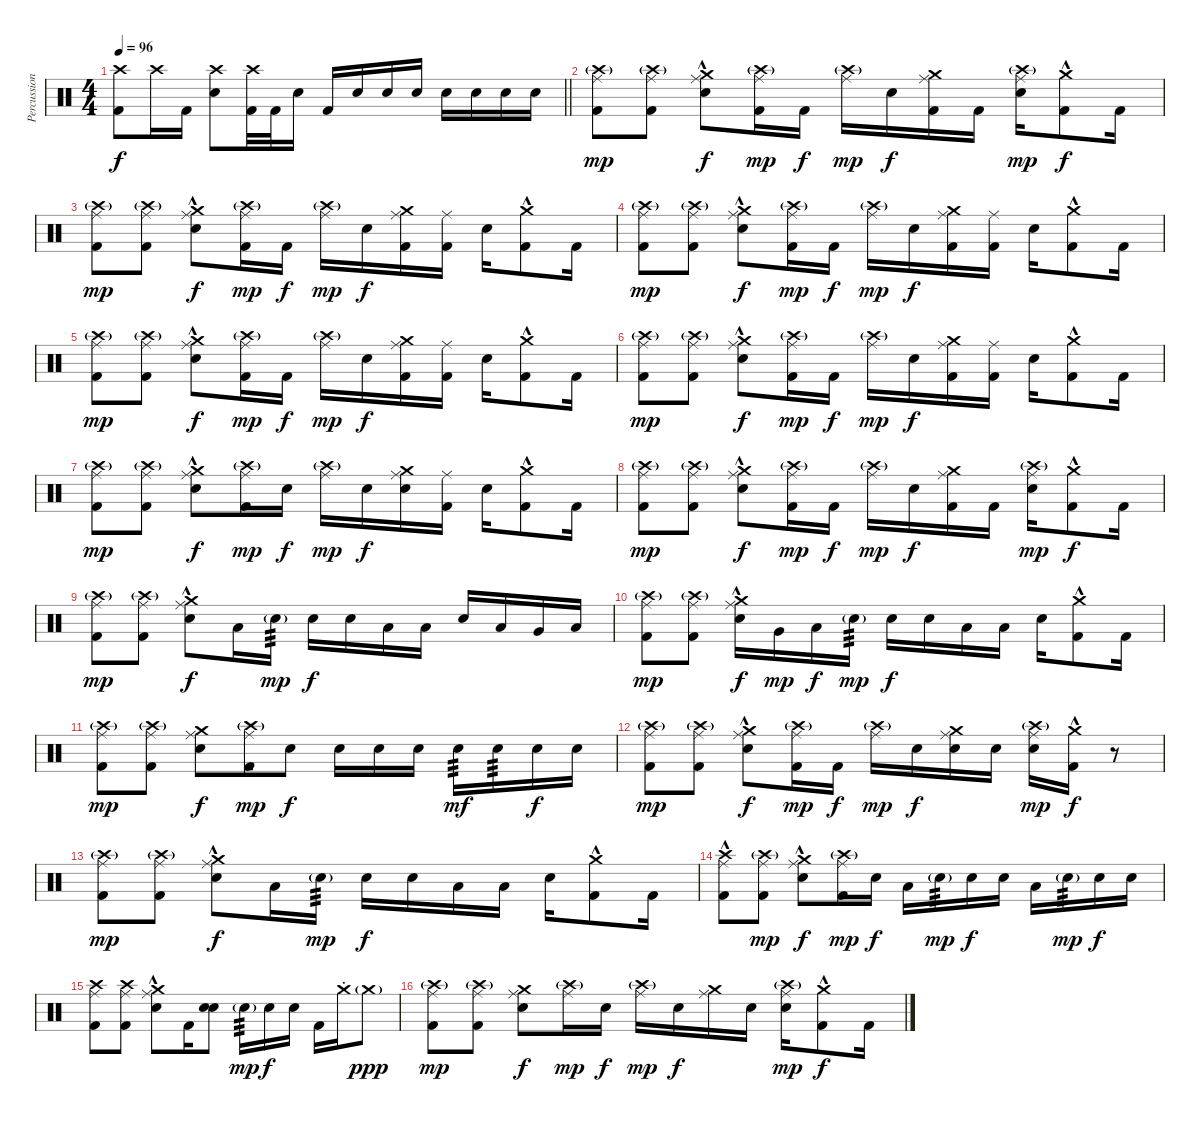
\track ("Percussion" "Percussion") {instrument percussion}
\staff {score}
\articulation defaults
\ts (4 4)
\tempo 96
\clef neutral
\barLineRight lightlight
\ks c
("Crash high (hit)" "Kick (hit) 2").8{dy f} "Crash high (hit)".16 "Kick (hit) 2".16 ("Crash high (hit)" "Snare (hit) 2").8 ("Crash high (hit)" "Kick (hit) 2").32 "Kick (hit) 2".32 "Snare (hit) 2".16 "Kick (hit) 2".16 "Snare (hit) 2".16 "Snare (hit) 2".16 "Snare (hit) 2".16 "Snare (hit) 2".16 "Snare (hit) 2".16 "Snare (hit) 2".16 "Snare (hit) 2".16 |
("Ride (middle)" "Crash high (hit)"{g} "Kick (hit) 2").8{dy mp} ("Ride (middle)" "Crash high (hit)"{g} "Kick (hit) 2").8 ("Ride (middle)" "Crash medium (hit)"{hac} "Snare (hit) 2").8{dy f} ("Ride (middle)" "Crash high (hit)"{g} "Kick (hit) 2").16{dy mp} "Kick (hit) 2".16{dy f} ("Ride (middle)" "Crash high (hit)"{g}).16{dy mp} "Snare (hit) 2".16{dy f} ("Ride (middle)" "Crash medium (hit)" "Kick (hit) 2").16 "Kick (hit) 2".16 ("Ride (middle)" "Crash high (hit)"{g} "Snare (hit) 2").16{dy mp} ("Crash medium (hit)"{hac} "Kick (hit) 2").8{dy f} "Kick (hit) 2".16 |
("Ride (middle)" "Crash high (hit)"{g} "Kick (hit) 2").8{dy mp} ("Ride (middle)" "Crash high (hit)"{g} "Kick (hit) 2").8 ("Ride (middle)" "Crash medium (hit)"{hac} "Snare (hit) 2").8{dy f} ("Ride (middle)" "Crash high (hit)"{g} "Kick (hit) 2").16{dy mp} "Kick (hit) 2".16{dy f} ("Ride (middle)" "Crash high (hit)"{g}).16{dy mp} "Snare (hit) 2".16{dy f} ("Ride (middle)" "Crash medium (hit)" "Kick (hit) 2").16 ("Ride (middle)" "Kick (hit) 2").16 "Snare (hit) 2".16 ("Crash medium (hit)"{hac} "Kick (hit) 2").8 "Kick (hit) 2".16 |
("Ride (middle)" "Crash high (hit)"{g} "Kick (hit) 2").8{dy mp} ("Ride (middle)" "Crash high (hit)"{g} "Kick (hit) 2").8 ("Ride (middle)" "Crash medium (hit)"{hac} "Snare (hit) 2").8{dy f} ("Ride (middle)" "Crash high (hit)"{g} "Kick (hit) 2").16{dy mp} "Kick (hit) 2".16{dy f} ("Ride (middle)" "Crash high (hit)"{g}).16{dy mp} "Snare (hit) 2".16{dy f} ("Ride (middle)" "Crash medium (hit)" "Kick (hit) 2").16 ("Ride (middle)" "Kick (hit) 2").16 "Snare (hit) 2".16 ("Crash medium (hit)"{hac} "Kick (hit) 2").8 "Kick (hit) 2".16 |
("Ride (middle)" "Crash high (hit)"{g} "Kick (hit) 2").8{dy mp} ("Ride (middle)" "Crash high (hit)"{g} "Kick (hit) 2").8 ("Ride (middle)" "Crash medium (hit)"{hac} "Snare (hit) 2").8{dy f} ("Ride (middle)" "Crash high (hit)"{g} "Kick (hit) 2").16{dy mp} "Kick (hit) 2".16{dy f} ("Ride (middle)" "Crash high (hit)"{g}).16{dy mp} "Snare (hit) 2".16{dy f} ("Ride (middle)" "Crash medium (hit)" "Kick (hit) 2").16 ("Ride (middle)" "Kick (hit) 2").16 "Snare (hit) 2".16 ("Crash medium (hit)"{hac} "Kick (hit) 2").8 "Kick (hit) 2".16 |
("Ride (middle)" "Crash high (hit)"{g} "Kick (hit) 2").8{dy mp} ("Ride (middle)" "Crash high (hit)"{g} "Kick (hit) 2").8 ("Ride (middle)" "Crash medium (hit)"{hac} "Snare (hit) 2").8{dy f} ("Ride (middle)" "Crash high (hit)"{g} "Kick (hit) 2").16{dy mp} "Kick (hit) 2".16{dy f} ("Ride (middle)" "Crash high (hit)"{g}).16{dy mp} "Snare (hit) 2".16{dy f} ("Ride (middle)" "Crash medium (hit)" "Kick (hit) 2").16 ("Ride (middle)" "Kick (hit) 2").16 "Snare (hit) 2".16 ("Crash medium (hit)"{hac} "Kick (hit) 2").8 "Kick (hit) 2".16 |
("Ride (middle)" "Crash high (hit)"{g} "Kick (hit) 2").8{dy mp} ("Ride (middle)" "Crash high (hit)"{g} "Kick (hit) 2").8 ("Ride (middle)" "Crash medium (hit)"{hac} "Snare (hit) 2").8{dy f} ("Ride (middle)" "Crash high (hit)"{g} "Kick (hit) 2").16{dy mp} "Snare (hit) 2".16{dy f} ("Ride (middle)" "Crash high (hit)"{g}).16{dy mp} "Snare (hit) 2".16{dy f} ("Ride (middle)" "Crash medium (hit)" "Snare (hit) 2").16 ("Ride (middle)" "Kick (hit) 2").16 "Snare (hit) 2".16 ("Crash medium (hit)"{hac} "Kick (hit) 2").8 "Kick (hit) 2".16 |
("Ride (middle)" "Crash high (hit)"{g} "Kick (hit) 2").8{dy mp} ("Ride (middle)" "Crash high (hit)"{g} "Kick (hit) 2").8 ("Ride (middle)" "Crash medium (hit)"{hac} "Snare (hit) 2").8{dy f} ("Ride (middle)" "Crash high (hit)"{g} "Kick (hit) 2").16{dy mp} "Kick (hit) 2".16{dy f} ("Ride (middle)" "Crash high (hit)"{g}).16{dy mp} "Snare (hit) 2".16{dy f} ("Ride (middle)" "Crash medium (hit)" "Kick (hit) 2").16 "Kick (hit) 2".16 ("Ride (middle)" "Crash high (hit)"{g} "Snare (hit) 2").16{dy mp} ("Crash medium (hit)"{hac} "Kick (hit) 2").8{dy f} "Kick (hit) 2".16 |
("Ride (middle)" "Crash high (hit)"{g} "Kick (hit) 2").8{dy mp} ("Ride (middle)" "Crash high (hit)"{g} "Kick (hit) 2").8 ("Ride (middle)" "Crash medium (hit)"{hac} "Snare (hit) 2").8{dy f} "Low Floor Tom (hit)".16 "Snare (hit) 2"{g}.16{tp 3 dy mp} "Snare (hit) 2".16{dy f} "Snare (hit) 2".16 "Low Floor Tom (hit)".16 "Low Floor Tom (hit)".16 "Snare (hit) 2".16 "Low Tom (hit)".16 "Very Low Tom (hit)".16 "Low Floor Tom (hit)".16 |
("Ride (middle)" "Crash high (hit)"{g} "Kick (hit) 2").8{dy mp} ("Ride (middle)" "Crash high (hit)"{g} "Kick (hit) 2").8 ("Ride (middle)" "Crash medium (hit)"{hac} "Snare (hit) 2").16{dy f} "Very Low Tom (hit)".16{dy mp} "Low Floor Tom (hit)".16{dy f} "Snare (hit) 2"{g}.16{tp 3 dy mp} "Snare (hit) 2".16{dy f} "Snare (hit) 2".16 "Low Floor Tom (hit)".16 "Low Floor Tom (hit)".16 "Snare (hit) 2".16 ("Crash medium (hit)"{hac} "Kick (hit) 2").8 "Kick (hit) 2".16 |
("Ride (middle)" "Crash high (hit)"{g} "Kick (hit) 2").8{dy mp} ("Ride (middle)" "Crash high (hit)"{g} "Kick (hit) 2").8 ("Ride (middle)" "Crash medium (hit)" "Snare (hit) 2").8{dy f} ("Ride (middle)" "Crash high (hit)"{g} "Kick (hit) 2").16{dy mp} "Snare (hit) 2".8{dy f} "Snare (hit) 2".16 "Snare (hit) 2".16 "Snare (hit) 2".16 "Snare (hit) 2".16{tp 3 dy mf} "Snare (hit) 2".16{tp 3} "Snare (hit) 2".16{dy f} "Snare (hit) 2".16 |
("Ride (middle)" "Crash high (hit)"{g} "Kick (hit) 2").8{dy mp} ("Ride (middle)" "Crash high (hit)"{g} "Kick (hit) 2").8 ("Ride (middle)" "Crash medium (hit)"{hac} "Snare (hit) 2").8{dy f} ("Ride (middle)" "Crash high (hit)"{g} "Kick (hit) 2").16{dy mp} "Kick (hit) 2".16{dy f} ("Ride (middle)" "Crash high (hit)"{g}).16{dy mp} "Snare (hit) 2".16{dy f} ("Ride (middle)" "Crash medium (hit)" "Snare (hit) 2").16 "Snare (hit) 2".16 ("Ride (middle)" "Crash high (hit)"{g} "Snare (hit) 2").16{dy mp} ("Crash medium (hit)"{hac} "Kick (hit) 2").16{dy f} r.8 |
("Ride (middle)" "Crash high (hit)"{g} "Kick (hit) 2").8{dy mp} ("Ride (middle)" "Crash high (hit)"{g} "Kick (hit) 2").8 ("Ride (middle)" "Crash medium (hit)"{hac} "Snare (hit) 2").8{dy f} "Low Floor Tom (hit)".16 "Snare (hit) 2"{g}.16{tp 3 dy mp} "Snare (hit) 2".16{dy f} "Snare (hit) 2".16 "Low Floor Tom (hit)".16 "Low Floor Tom (hit)".16 "Snare (hit) 2".16 ("Crash medium (hit)"{hac} "Kick (hit) 2").8 "Kick (hit) 2".16 |
("Ride (middle)" "Crash high (hit)"{hac} "Kick (hit) 2").8 ("Ride (middle)" "Crash high (hit)"{g} "Kick (hit) 2").8{dy mp} ("Ride (middle)" "Crash medium (hit)"{hac} "Snare (hit) 2").8{dy f} ("Ride (middle)" "Crash high (hit)"{g} "Kick (hit) 2").16{dy mp} "Snare (hit) 2".16{dy f} "Low Tom (hit)".16 "Snare (hit) 2"{g}.16{tp 3 dy mp} "Snare (hit) 2".16{dy f} "Snare (hit) 2".16 "Low Tom (hit)".16 "Snare (hit) 2"{g}.16{tp 3 dy mp} "Snare (hit) 2".16{dy f} "Snare (hit) 2".16 |
("Ride (middle)" "Crash high (hit)" "Kick (hit) 2").8 ("Ride (middle)" "Crash high (hit)" "Kick (hit) 2").8 ("Ride (middle)" "Crash medium (hit)"{hac} "Snare (hit) 2").8 "Kick (hit) 2".16 ("Snare (hit) 2" "Snare (hit) 2").8{bd 240} "Snare (hit) 2"{g}.16{tp 3 dy mp} "Snare (hit) 2".16{dy f} "Snare (hit) 2".16 "Kick (hit) 2".16 "Crash medium (hit)"{st}.16 "Crash medium (hit)"{g}.8{dy ppp} |
("Ride (middle)" "Crash high (hit)"{g} "Kick (hit) 2").8{dy mp} ("Ride (middle)" "Crash high (hit)"{g} "Kick (hit) 2").8 ("Ride (middle)" "Crash medium (hit)" "Snare (hit) 2").8{dy f} ("Ride (middle)" "Crash high (hit)"{g}).16{dy mp} "Snare (hit) 2".16{dy f} ("Ride (middle)" "Crash high (hit)"{g}).16{dy mp} "Snare (hit) 2".16{dy f} ("Ride (middle)" "Crash medium (hit)").16 "Snare (hit) 2".16 ("Ride (middle)" "Crash high (hit)"{g} "Snare (hit) 2").16{dy mp} ("Crash medium (hit)"{hac} "Kick (hit) 2").8{dy f} "Kick (hit) 2".16
